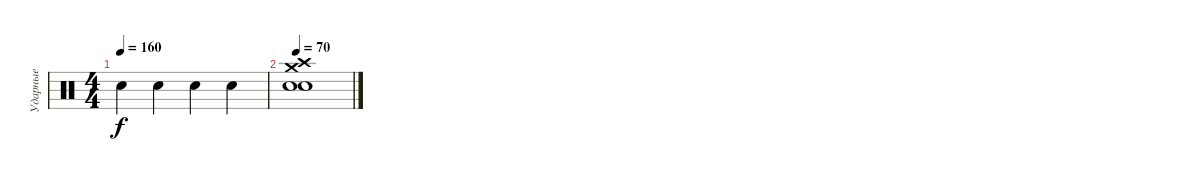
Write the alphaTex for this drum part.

\track ("Ударные" "Ударные") {instrument percussion}
\staff {score}
\articulation defaults
\ts (4 4)
\tempo 160
\clef neutral
\ks c "Electric Snare (hit)".4{dy f} "Electric Snare (hit)".4 "Electric Snare (hit)".4 "Electric Snare (hit)".4
|
\tempo 70
("Crash high (hit)" "Crash medium (hit)" "Snare (hit) 2" "Electric Snare (hit)").1
